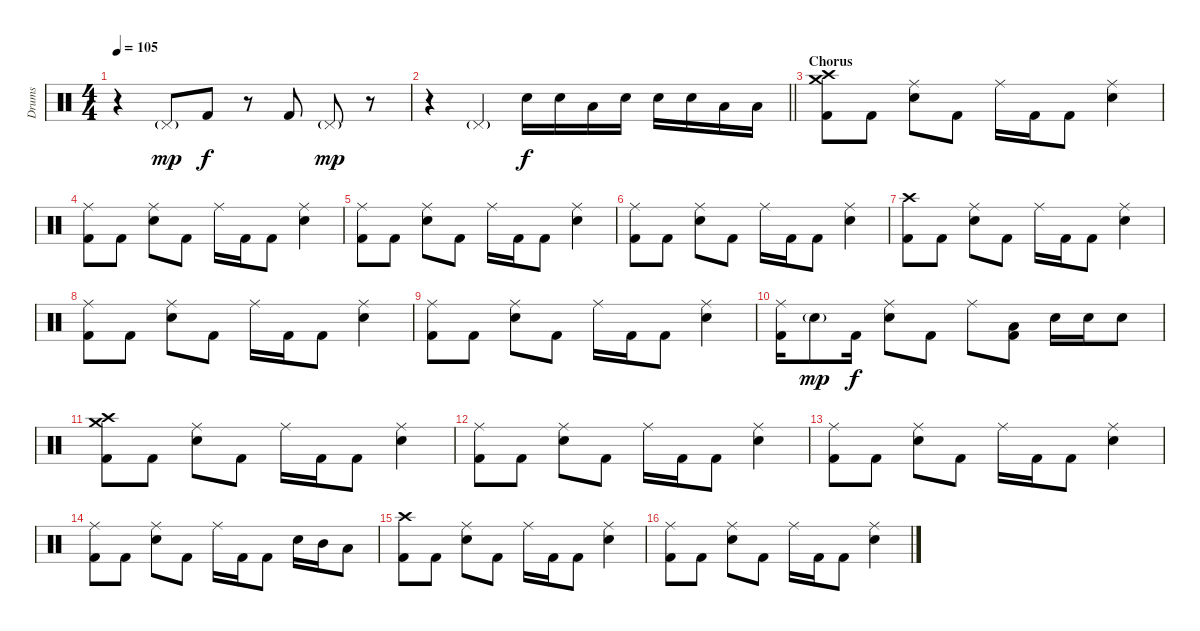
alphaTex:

\track ("Drums" "Drums") {instrument percussion}
\staff {score}
\articulation defaults
\ts (4 4)
\tempo 105
\clef neutral
\ks c
r.4{dy mp} "Pedal Hi-Hat (hit)"{g}.8 "Kick (hit) 2".8{dy f} r.8 "Kick (hit) 2".8 "Pedal Hi-Hat (hit)"{g}.8{dy mp} r.8 |
\barLineRight lightlight
r.4 "Pedal Hi-Hat (hit)"{g}.4 "Electric Snare (hit)".16{dy f} "Electric Snare (hit)".16 "Low Tom (hit)".16 "Electric Snare (hit)".16 "Electric Snare (hit)".16 "Electric Snare (hit)".16 "Low Tom (hit)".16 "Low Floor Tom (hit)".16 |
\section ("" "Chorus")
("Crash high (hit)" "Crash medium (hit)" "Kick (hit) 2").8 "Kick (hit) 2".8 ("Ride (middle)" "Electric Snare (hit)").8 "Kick (hit) 2".8 "Ride (middle)".16 "Kick (hit) 2".16 "Kick (hit) 2".8 ("Ride (middle)" "Electric Snare (hit)").4 |
("Ride (middle)" "Kick (hit) 2").8 "Kick (hit) 2".8 ("Ride (middle)" "Electric Snare (hit)").8 "Kick (hit) 2".8 "Ride (middle)".16 "Kick (hit) 2".16 "Kick (hit) 2".8 ("Ride (middle)" "Electric Snare (hit)").4 |
("Ride (middle)" "Kick (hit) 2").8 "Kick (hit) 2".8 ("Ride (middle)" "Electric Snare (hit)").8 "Kick (hit) 2".8 "Ride (middle)".16 "Kick (hit) 2".16 "Kick (hit) 2".8 ("Ride (middle)" "Electric Snare (hit)").4 |
("Ride (middle)" "Kick (hit) 2").8 "Kick (hit) 2".8 ("Ride (middle)" "Electric Snare (hit)").8 "Kick (hit) 2".8 "Ride (middle)".16 "Kick (hit) 2".16 "Kick (hit) 2".8 ("Ride (middle)" "Electric Snare (hit)").4 |
("Crash high (hit)" "Kick (hit) 2").8 "Kick (hit) 2".8 ("Ride (middle)" "Electric Snare (hit)").8 "Kick (hit) 2".8 "Ride (middle)".16 "Kick (hit) 2".16 "Kick (hit) 2".8 ("Ride (middle)" "Electric Snare (hit)").4 |
("Ride (middle)" "Kick (hit) 2").8 "Kick (hit) 2".8 ("Ride (middle)" "Electric Snare (hit)").8 "Kick (hit) 2".8 "Ride (middle)".16 "Kick (hit) 2".16 "Kick (hit) 2".8 ("Ride (middle)" "Electric Snare (hit)").4 |
("Ride (middle)" "Kick (hit) 2").8 "Kick (hit) 2".8 ("Ride (middle)" "Electric Snare (hit)").8 "Kick (hit) 2".8 "Ride (middle)".16 "Kick (hit) 2".16 "Kick (hit) 2".8 ("Ride (middle)" "Electric Snare (hit)").4 |
("Ride (middle)" "Kick (hit) 2").16 "Electric Snare (hit)"{g}.8{dy mp} "Kick (hit) 2".16{dy f} ("Ride (middle)" "Electric Snare (hit)").8 "Kick (hit) 2".8 "Ride (middle)".8 ("Low Floor Tom (hit)" "Kick (hit) 2").8 "Electric Snare (hit)".16 "Electric Snare (hit)".16 "Electric Snare (hit)".8 |
("Crash high (hit)" "Crash medium (hit)" "Kick (hit) 2").8 "Kick (hit) 2".8 ("Ride (middle)" "Electric Snare (hit)").8 "Kick (hit) 2".8 "Ride (middle)".16 "Kick (hit) 2".16 "Kick (hit) 2".8 ("Ride (middle)" "Electric Snare (hit)").4 |
("Ride (middle)" "Kick (hit) 2").8 "Kick (hit) 2".8 ("Ride (middle)" "Electric Snare (hit)").8 "Kick (hit) 2".8 "Ride (middle)".16 "Kick (hit) 2".16 "Kick (hit) 2".8 ("Ride (middle)" "Electric Snare (hit)").4 |
("Ride (middle)" "Kick (hit) 2").8 "Kick (hit) 2".8 ("Ride (middle)" "Electric Snare (hit)").8 "Kick (hit) 2".8 "Ride (middle)".16 "Kick (hit) 2".16 "Kick (hit) 2".8 ("Ride (middle)" "Electric Snare (hit)").4 |
("Ride (middle)" "Kick (hit) 2").8 "Kick (hit) 2".8 ("Ride (middle)" "Electric Snare (hit)").8 "Kick (hit) 2".8 "Ride (middle)".16 "Kick (hit) 2".16 "Kick (hit) 2".8 "Electric Snare (hit)".16 "Mid Tom (hit)".16 "Low Tom (hit)".8 |
("Crash high (hit)" "Kick (hit) 2").8 "Kick (hit) 2".8 ("Ride (middle)" "Electric Snare (hit)").8 "Kick (hit) 2".8 "Ride (middle)".16 "Kick (hit) 2".16 "Kick (hit) 2".8 ("Ride (middle)" "Electric Snare (hit)").4 |
("Ride (middle)" "Kick (hit) 2").8 "Kick (hit) 2".8 ("Ride (middle)" "Electric Snare (hit)").8 "Kick (hit) 2".8 "Ride (middle)".16 "Kick (hit) 2".16 "Kick (hit) 2".8 ("Ride (middle)" "Electric Snare (hit)").4
